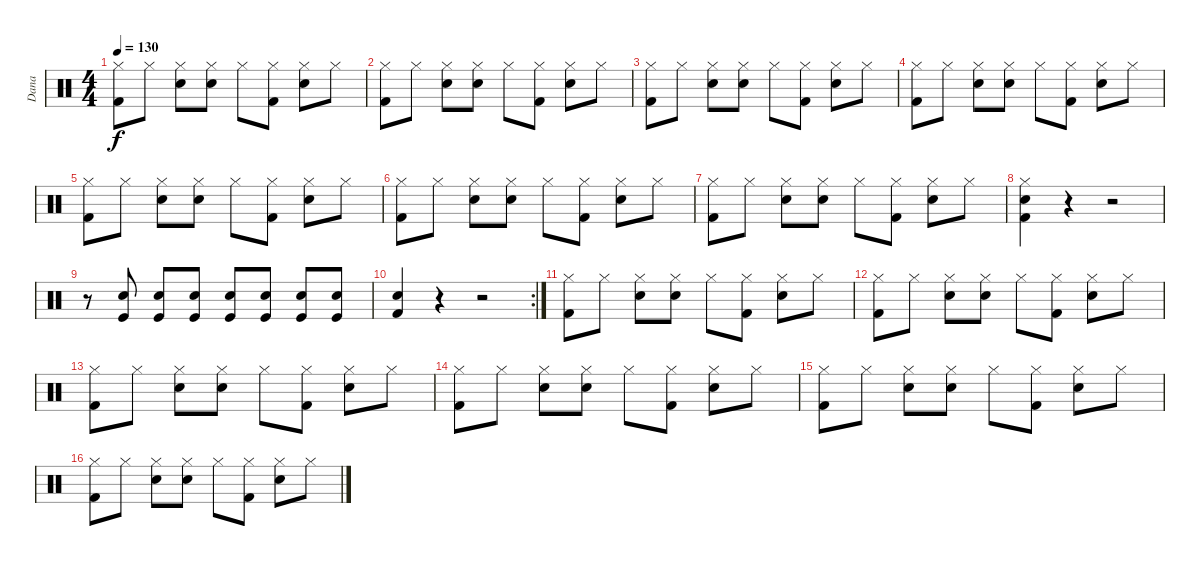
\track ("Dana" "Dana") {instrument percussion}
\staff {score}
\articulation defaults
\ts (4 4)
\tempo 130
\clef neutral
\ks c
("Hi-Hat (closed)" "Kick (hit) 2").8{dy f} "Hi-Hat (closed)".8 ("Hi-Hat (closed)" "Snare (hit) 2").8 ("Hi-Hat (closed)" "Snare (hit) 2").8 "Hi-Hat (closed)".8 ("Hi-Hat (closed)" "Kick (hit) 2").8 ("Hi-Hat (closed)" "Snare (hit) 2").8 "Hi-Hat (closed)".8 |
("Hi-Hat (closed)" "Kick (hit) 2").8 "Hi-Hat (closed)".8 ("Hi-Hat (closed)" "Snare (hit) 2").8 ("Hi-Hat (closed)" "Snare (hit) 2").8 "Hi-Hat (closed)".8 ("Hi-Hat (closed)" "Kick (hit) 2").8 ("Hi-Hat (closed)" "Snare (hit) 2").8 "Hi-Hat (closed)".8 |
("Hi-Hat (closed)" "Kick (hit) 2").8 "Hi-Hat (closed)".8 ("Hi-Hat (closed)" "Snare (hit) 2").8 ("Hi-Hat (closed)" "Snare (hit) 2").8 "Hi-Hat (closed)".8 ("Hi-Hat (closed)" "Kick (hit) 2").8 ("Hi-Hat (closed)" "Snare (hit) 2").8 "Hi-Hat (closed)".8 |
("Hi-Hat (closed)" "Kick (hit) 2").8 "Hi-Hat (closed)".8 ("Hi-Hat (closed)" "Snare (hit) 2").8 ("Hi-Hat (closed)" "Snare (hit) 2").8 "Hi-Hat (closed)".8 ("Hi-Hat (closed)" "Kick (hit) 2").8 ("Hi-Hat (closed)" "Snare (hit) 2").8 "Hi-Hat (closed)".8 |
("Hi-Hat (closed)" "Kick (hit) 2").8 "Hi-Hat (closed)".8 ("Hi-Hat (closed)" "Snare (hit) 2").8 ("Hi-Hat (closed)" "Snare (hit) 2").8 "Hi-Hat (closed)".8 ("Hi-Hat (closed)" "Kick (hit) 2").8 ("Hi-Hat (closed)" "Snare (hit) 2").8 "Hi-Hat (closed)".8 |
("Hi-Hat (closed)" "Kick (hit) 2").8 "Hi-Hat (closed)".8 ("Hi-Hat (closed)" "Snare (hit) 2").8 ("Hi-Hat (closed)" "Snare (hit) 2").8 "Hi-Hat (closed)".8 ("Hi-Hat (closed)" "Kick (hit) 2").8 ("Hi-Hat (closed)" "Snare (hit) 2").8 "Hi-Hat (closed)".8 |
("Hi-Hat (closed)" "Kick (hit) 2").8 "Hi-Hat (closed)".8 ("Hi-Hat (closed)" "Snare (hit) 2").8 ("Hi-Hat (closed)" "Snare (hit) 2").8 "Hi-Hat (closed)".8 ("Hi-Hat (closed)" "Kick (hit) 2").8 ("Hi-Hat (closed)" "Snare (hit) 2").8 "Hi-Hat (closed)".8 |
("Hi-Hat (closed)" "Snare (hit) 2" "Kick (hit) 2").4 r.4 r.2 |
r.8 ("Snare (hit) 2" "Kick (hit)").8 ("Snare (hit) 2" "Kick (hit)").8 ("Snare (hit) 2" "Kick (hit)").8 ("Snare (hit) 2" "Kick (hit)").8 ("Snare (hit) 2" "Kick (hit)").8 ("Snare (hit) 2" "Kick (hit)").8 ("Snare (hit) 2" "Kick (hit)").8 |
\rc 2
("Snare (hit) 2" "Kick (hit) 2").4 r.4 r.2 |
("Hi-Hat (closed)" "Kick (hit) 2").8 "Hi-Hat (closed)".8 ("Hi-Hat (closed)" "Snare (hit) 2").8 ("Hi-Hat (closed)" "Snare (hit) 2").8 "Hi-Hat (closed)".8 ("Hi-Hat (closed)" "Kick (hit) 2").8 ("Hi-Hat (closed)" "Snare (hit) 2").8 "Hi-Hat (closed)".8 |
("Hi-Hat (closed)" "Kick (hit) 2").8 "Hi-Hat (closed)".8 ("Hi-Hat (closed)" "Snare (hit) 2").8 ("Hi-Hat (closed)" "Snare (hit) 2").8 "Hi-Hat (closed)".8 ("Hi-Hat (closed)" "Kick (hit) 2").8 ("Hi-Hat (closed)" "Snare (hit) 2").8 "Hi-Hat (closed)".8 |
("Hi-Hat (closed)" "Kick (hit) 2").8 "Hi-Hat (closed)".8 ("Hi-Hat (closed)" "Snare (hit) 2").8 ("Hi-Hat (closed)" "Snare (hit) 2").8 "Hi-Hat (closed)".8 ("Hi-Hat (closed)" "Kick (hit) 2").8 ("Hi-Hat (closed)" "Snare (hit) 2").8 "Hi-Hat (closed)".8 |
("Hi-Hat (closed)" "Kick (hit) 2").8 "Hi-Hat (closed)".8 ("Hi-Hat (closed)" "Snare (hit) 2").8 ("Hi-Hat (closed)" "Snare (hit) 2").8 "Hi-Hat (closed)".8 ("Hi-Hat (closed)" "Kick (hit) 2").8 ("Hi-Hat (closed)" "Snare (hit) 2").8 "Hi-Hat (closed)".8 |
("Hi-Hat (closed)" "Kick (hit) 2").8 "Hi-Hat (closed)".8 ("Hi-Hat (closed)" "Snare (hit) 2").8 ("Hi-Hat (closed)" "Snare (hit) 2").8 "Hi-Hat (closed)".8 ("Hi-Hat (closed)" "Kick (hit) 2").8 ("Hi-Hat (closed)" "Snare (hit) 2").8 "Hi-Hat (closed)".8 |
("Hi-Hat (closed)" "Kick (hit) 2").8 "Hi-Hat (closed)".8 ("Hi-Hat (closed)" "Snare (hit) 2").8 ("Hi-Hat (closed)" "Snare (hit) 2").8 "Hi-Hat (closed)".8 ("Hi-Hat (closed)" "Kick (hit) 2").8 ("Hi-Hat (closed)" "Snare (hit) 2").8 "Hi-Hat (closed)".8
